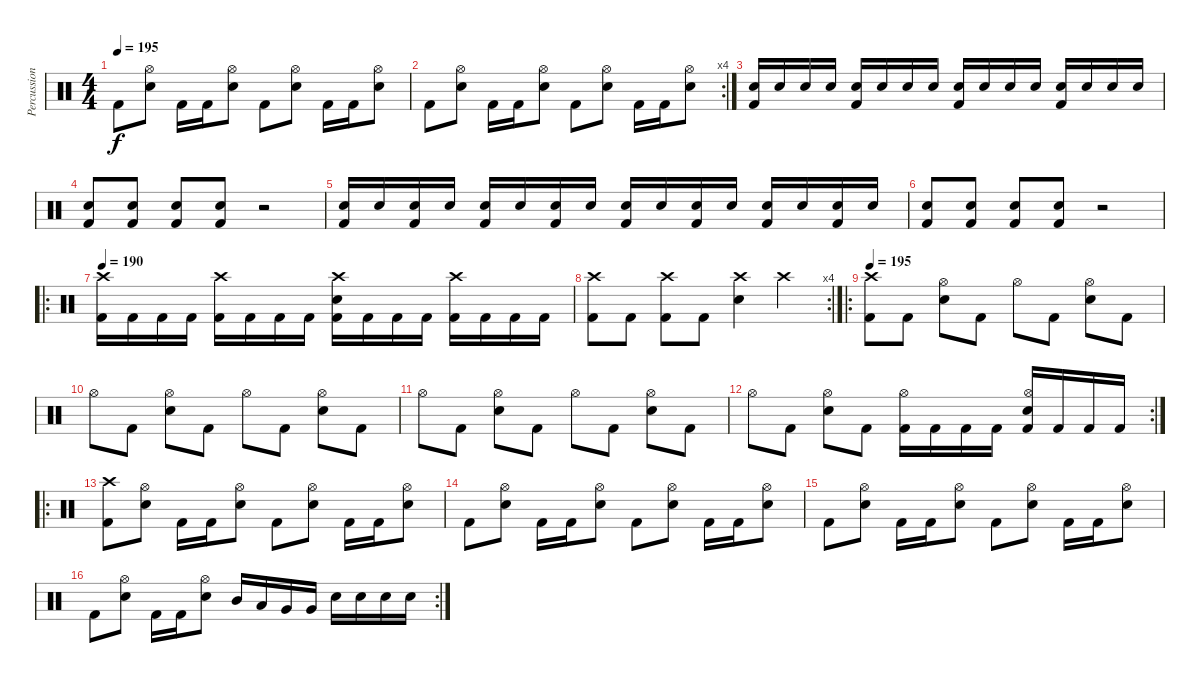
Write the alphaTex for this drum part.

\track ("Percussion" "Percussion") {instrument percussion}
\staff {score}
\articulation defaults
\ts (4 4)
\tempo 195
\clef neutral
\ks c "Kick (hit) 2".8{dy f}
("Hi-Hat (open)" "Snare (hit) 2").8 "Kick (hit) 2".16 "Kick (hit) 2".16 ("Hi-Hat (open)" "Snare (hit) 2").8 "Kick (hit) 2".8 ("Hi-Hat (open)" "Snare (hit) 2").8 "Kick (hit) 2".16 "Kick (hit) 2".16 ("Hi-Hat (open)" "Snare (hit) 2").8 |
\rc 4 "Kick (hit) 2".8
("Hi-Hat (open)" "Snare (hit) 2").8 "Kick (hit) 2".16 "Kick (hit) 2".16 ("Hi-Hat (open)" "Snare (hit) 2").8 "Kick (hit) 2".8 ("Hi-Hat (open)" "Snare (hit) 2").8 "Kick (hit) 2".16 "Kick (hit) 2".16 ("Hi-Hat (open)" "Snare (hit) 2").8 |
("Snare (hit) 2" "Kick (hit) 2").16 "Snare (hit) 2".16 "Snare (hit) 2".16 "Snare (hit) 2".16 ("Snare (hit) 2" "Kick (hit) 2").16 "Snare (hit) 2".16 "Snare (hit) 2".16 "Snare (hit) 2".16 ("Snare (hit) 2" "Kick (hit) 2").16 "Snare (hit) 2".16 "Snare (hit) 2".16 "Snare (hit) 2".16 ("Snare (hit) 2" "Kick (hit) 2").16 "Snare (hit) 2".16 "Snare (hit) 2".16 "Snare (hit) 2".16 |
("Snare (hit) 2" "Kick (hit) 2").8 ("Snare (hit) 2" "Kick (hit) 2").8 ("Snare (hit) 2" "Kick (hit) 2").8 ("Snare (hit) 2" "Kick (hit) 2").8 r.2 |
("Snare (hit) 2" "Kick (hit) 2").16 "Snare (hit) 2".16 ("Snare (hit) 2" "Kick (hit) 2").16 "Snare (hit) 2".16 ("Snare (hit) 2" "Kick (hit) 2").16 "Snare (hit) 2".16 ("Snare (hit) 2" "Kick (hit) 2").16 "Snare (hit) 2".16 ("Snare (hit) 2" "Kick (hit) 2").16 "Snare (hit) 2".16 ("Snare (hit) 2" "Kick (hit) 2").16 "Snare (hit) 2".16 ("Snare (hit) 2" "Kick (hit) 2").16 "Snare (hit) 2".16 ("Snare (hit) 2" "Kick (hit) 2").16 "Snare (hit) 2".16 |
("Snare (hit) 2" "Kick (hit) 2").8 ("Snare (hit) 2" "Kick (hit) 2").8 ("Snare (hit) 2" "Kick (hit) 2").8 ("Snare (hit) 2" "Kick (hit) 2").8 r.2 |
\ro
\tempo 190
("Crash high (hit)" "Kick (hit) 2").16 "Kick (hit) 2".16 "Kick (hit) 2".16 "Kick (hit) 2".16 ("Crash high (hit)" "Kick (hit) 2").16 "Kick (hit) 2".16 "Kick (hit) 2".16 "Kick (hit) 2".16 ("Crash high (hit)" "Snare (hit) 2" "Kick (hit) 2").16 "Kick (hit) 2".16 "Kick (hit) 2".16 "Kick (hit) 2".16 ("Crash high (hit)" "Kick (hit) 2").16 "Kick (hit) 2".16 "Kick (hit) 2".16 "Kick (hit) 2".16 |
\rc 4
("Crash high (hit)" "Kick (hit) 2").8 "Kick (hit) 2".8 ("Crash high (hit)" "Kick (hit) 2").8 "Kick (hit) 2".8 ("Crash high (hit)" "Snare (hit) 2").4 "Crash high (hit)".4 |
\ro
\tempo 195
("Crash high (hit)" "Kick (hit) 2").8 "Kick (hit) 2".8 ("Hi-Hat (open)" "Snare (hit) 2").8 "Kick (hit) 2".8 "Hi-Hat (open)".8 "Kick (hit) 2".8 ("Hi-Hat (open)" "Snare (hit) 2").8 "Kick (hit) 2".8 |
"Hi-Hat (open)".8 "Kick (hit) 2".8 ("Hi-Hat (open)" "Snare (hit) 2").8 "Kick (hit) 2".8 "Hi-Hat (open)".8 "Kick (hit) 2".8 ("Hi-Hat (open)" "Snare (hit) 2").8 "Kick (hit) 2".8 |
"Hi-Hat (open)".8 "Kick (hit) 2".8 ("Hi-Hat (open)" "Snare (hit) 2").8 "Kick (hit) 2".8 "Hi-Hat (open)".8 "Kick (hit) 2".8 ("Hi-Hat (open)" "Snare (hit) 2").8 "Kick (hit) 2".8 |
\rc 2 "Hi-Hat (open)".8 "Kick (hit) 2".8
("Hi-Hat (open)" "Snare (hit) 2").8 "Kick (hit) 2".8 ("Hi-Hat (open)" "Kick (hit) 2").16 "Kick (hit) 2".16 "Kick (hit) 2".16 "Kick (hit) 2".16 ("Hi-Hat (open)" "Snare (hit) 2" "Kick (hit) 2").16 "Kick (hit) 2".16 "Kick (hit) 2".16 "Kick (hit) 2".16 |
\ro
("Crash high (hit)" "Kick (hit) 2").8 ("Hi-Hat (open)" "Snare (hit) 2").8 "Kick (hit) 2".16 "Kick (hit) 2".16 ("Hi-Hat (open)" "Snare (hit) 2").8 "Kick (hit) 2".8 ("Hi-Hat (open)" "Snare (hit) 2").8 "Kick (hit) 2".16 "Kick (hit) 2".16 ("Hi-Hat (open)" "Snare (hit) 2").8 |
"Kick (hit) 2".8 ("Hi-Hat (open)" "Snare (hit) 2").8 "Kick (hit) 2".16 "Kick (hit) 2".16 ("Hi-Hat (open)" "Snare (hit) 2").8 "Kick (hit) 2".8 ("Hi-Hat (open)" "Snare (hit) 2").8 "Kick (hit) 2".16 "Kick (hit) 2".16 ("Hi-Hat (open)" "Snare (hit) 2").8 |
"Kick (hit) 2".8 ("Hi-Hat (open)" "Snare (hit) 2").8 "Kick (hit) 2".16 "Kick (hit) 2".16 ("Hi-Hat (open)" "Snare (hit) 2").8 "Kick (hit) 2".8 ("Hi-Hat (open)" "Snare (hit) 2").8 "Kick (hit) 2".16 "Kick (hit) 2".16 ("Hi-Hat (open)" "Snare (hit) 2").8 |
\rc 2 "Kick (hit) 2".8
("Hi-Hat (open)" "Snare (hit) 2").8 "Kick (hit) 2".16 "Kick (hit) 2".16 ("Hi-Hat (open)" "Snare (hit) 2").8 "Mid Tom (hit)".16 "Low Tom (hit)".16 "Very Low Tom (hit)".16 "Very Low Tom (hit)".16 "Snare (hit) 2".16 "Snare (hit) 2".16 "Snare (hit) 2".16 "Snare (hit) 2".16
